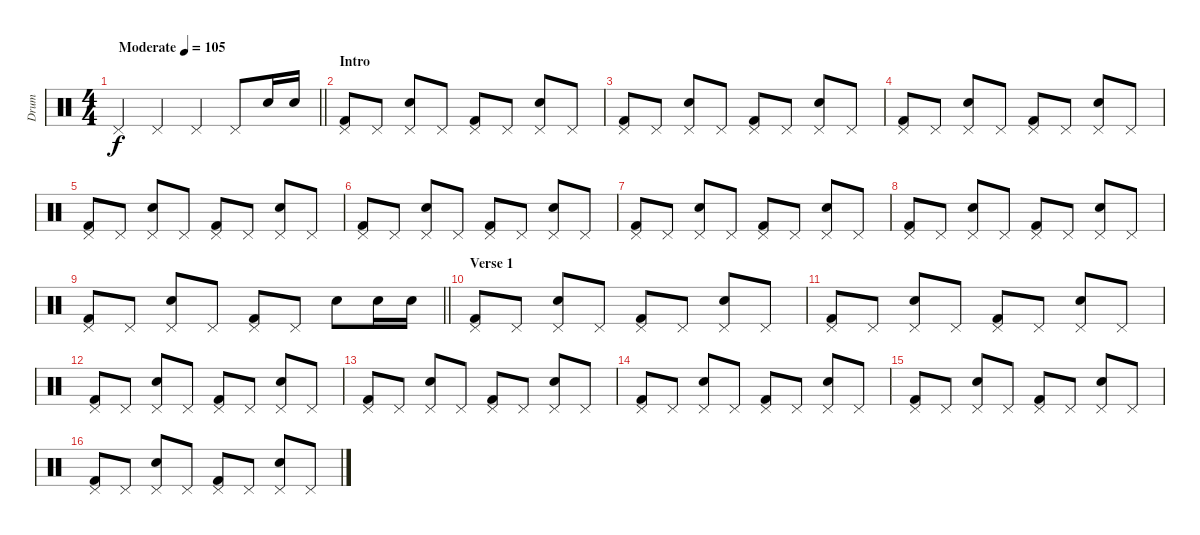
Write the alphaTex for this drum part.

\track ("Drum" "Drum") {instrument percussion}
\staff {score}
\articulation defaults
\ts (4 4)
\tempo (105 "Moderate")
\clef neutral
\barLineRight lightlight
\ks c "Pedal Hi-Hat (hit)".4{dy f} "Pedal Hi-Hat (hit)".4 "Pedal Hi-Hat (hit)".4 "Pedal Hi-Hat (hit)".8 "Electric Snare (hit)".16 "Electric Snare (hit)".16
|
\section ("" "Intro")
("Kick (hit) 2" "Pedal Hi-Hat (hit)").8 "Pedal Hi-Hat (hit)".8 ("Electric Snare (hit)" "Pedal Hi-Hat (hit)").8 "Pedal Hi-Hat (hit)".8 ("Kick (hit) 2" "Pedal Hi-Hat (hit)").8 "Pedal Hi-Hat (hit)".8 ("Electric Snare (hit)" "Pedal Hi-Hat (hit)").8 "Pedal Hi-Hat (hit)".8 |
("Kick (hit) 2" "Pedal Hi-Hat (hit)").8 "Pedal Hi-Hat (hit)".8 ("Electric Snare (hit)" "Pedal Hi-Hat (hit)").8 "Pedal Hi-Hat (hit)".8 ("Kick (hit) 2" "Pedal Hi-Hat (hit)").8 "Pedal Hi-Hat (hit)".8 ("Electric Snare (hit)" "Pedal Hi-Hat (hit)").8 "Pedal Hi-Hat (hit)".8 |
("Kick (hit) 2" "Pedal Hi-Hat (hit)").8 "Pedal Hi-Hat (hit)".8 ("Electric Snare (hit)" "Pedal Hi-Hat (hit)").8 "Pedal Hi-Hat (hit)".8 ("Kick (hit) 2" "Pedal Hi-Hat (hit)").8 "Pedal Hi-Hat (hit)".8 ("Electric Snare (hit)" "Pedal Hi-Hat (hit)").8 "Pedal Hi-Hat (hit)".8 |
("Kick (hit) 2" "Pedal Hi-Hat (hit)").8 "Pedal Hi-Hat (hit)".8 ("Electric Snare (hit)" "Pedal Hi-Hat (hit)").8 "Pedal Hi-Hat (hit)".8 ("Kick (hit) 2" "Pedal Hi-Hat (hit)").8 "Pedal Hi-Hat (hit)".8 ("Electric Snare (hit)" "Pedal Hi-Hat (hit)").8 "Pedal Hi-Hat (hit)".8 |
("Kick (hit) 2" "Pedal Hi-Hat (hit)").8 "Pedal Hi-Hat (hit)".8 ("Electric Snare (hit)" "Pedal Hi-Hat (hit)").8 "Pedal Hi-Hat (hit)".8 ("Kick (hit) 2" "Pedal Hi-Hat (hit)").8 "Pedal Hi-Hat (hit)".8 ("Electric Snare (hit)" "Pedal Hi-Hat (hit)").8 "Pedal Hi-Hat (hit)".8 |
("Kick (hit) 2" "Pedal Hi-Hat (hit)").8 "Pedal Hi-Hat (hit)".8 ("Electric Snare (hit)" "Pedal Hi-Hat (hit)").8 "Pedal Hi-Hat (hit)".8 ("Kick (hit) 2" "Pedal Hi-Hat (hit)").8 "Pedal Hi-Hat (hit)".8 ("Electric Snare (hit)" "Pedal Hi-Hat (hit)").8 "Pedal Hi-Hat (hit)".8 |
("Kick (hit) 2" "Pedal Hi-Hat (hit)").8 "Pedal Hi-Hat (hit)".8 ("Electric Snare (hit)" "Pedal Hi-Hat (hit)").8 "Pedal Hi-Hat (hit)".8 ("Kick (hit) 2" "Pedal Hi-Hat (hit)").8 "Pedal Hi-Hat (hit)".8 ("Electric Snare (hit)" "Pedal Hi-Hat (hit)").8 "Pedal Hi-Hat (hit)".8 |
\barLineRight lightlight
("Kick (hit) 2" "Pedal Hi-Hat (hit)").8 "Pedal Hi-Hat (hit)".8 ("Electric Snare (hit)" "Pedal Hi-Hat (hit)").8 "Pedal Hi-Hat (hit)".8 ("Kick (hit) 2" "Pedal Hi-Hat (hit)").8 "Pedal Hi-Hat (hit)".8 "Electric Snare (hit)".8 "Electric Snare (hit)".16 "Electric Snare (hit)".16 |
\section ("" "Verse 1")
("Kick (hit) 2" "Pedal Hi-Hat (hit)").8 "Pedal Hi-Hat (hit)".8 ("Electric Snare (hit)" "Pedal Hi-Hat (hit)").8 "Pedal Hi-Hat (hit)".8 ("Kick (hit) 2" "Pedal Hi-Hat (hit)").8 "Pedal Hi-Hat (hit)".8 ("Electric Snare (hit)" "Pedal Hi-Hat (hit)").8 "Pedal Hi-Hat (hit)".8 |
("Kick (hit) 2" "Pedal Hi-Hat (hit)").8 "Pedal Hi-Hat (hit)".8 ("Electric Snare (hit)" "Pedal Hi-Hat (hit)").8 "Pedal Hi-Hat (hit)".8 ("Kick (hit) 2" "Pedal Hi-Hat (hit)").8 "Pedal Hi-Hat (hit)".8 ("Electric Snare (hit)" "Pedal Hi-Hat (hit)").8 "Pedal Hi-Hat (hit)".8 |
("Kick (hit) 2" "Pedal Hi-Hat (hit)").8 "Pedal Hi-Hat (hit)".8 ("Electric Snare (hit)" "Pedal Hi-Hat (hit)").8 "Pedal Hi-Hat (hit)".8 ("Kick (hit) 2" "Pedal Hi-Hat (hit)").8 "Pedal Hi-Hat (hit)".8 ("Electric Snare (hit)" "Pedal Hi-Hat (hit)").8 "Pedal Hi-Hat (hit)".8 |
("Kick (hit) 2" "Pedal Hi-Hat (hit)").8 "Pedal Hi-Hat (hit)".8 ("Electric Snare (hit)" "Pedal Hi-Hat (hit)").8 "Pedal Hi-Hat (hit)".8 ("Kick (hit) 2" "Pedal Hi-Hat (hit)").8 "Pedal Hi-Hat (hit)".8 ("Electric Snare (hit)" "Pedal Hi-Hat (hit)").8 "Pedal Hi-Hat (hit)".8 |
("Kick (hit) 2" "Pedal Hi-Hat (hit)").8 "Pedal Hi-Hat (hit)".8 ("Electric Snare (hit)" "Pedal Hi-Hat (hit)").8 "Pedal Hi-Hat (hit)".8 ("Kick (hit) 2" "Pedal Hi-Hat (hit)").8 "Pedal Hi-Hat (hit)".8 ("Electric Snare (hit)" "Pedal Hi-Hat (hit)").8 "Pedal Hi-Hat (hit)".8 |
("Kick (hit) 2" "Pedal Hi-Hat (hit)").8 "Pedal Hi-Hat (hit)".8 ("Electric Snare (hit)" "Pedal Hi-Hat (hit)").8 "Pedal Hi-Hat (hit)".8 ("Kick (hit) 2" "Pedal Hi-Hat (hit)").8 "Pedal Hi-Hat (hit)".8 ("Electric Snare (hit)" "Pedal Hi-Hat (hit)").8 "Pedal Hi-Hat (hit)".8 |
("Kick (hit) 2" "Pedal Hi-Hat (hit)").8 "Pedal Hi-Hat (hit)".8 ("Electric Snare (hit)" "Pedal Hi-Hat (hit)").8 "Pedal Hi-Hat (hit)".8 ("Kick (hit) 2" "Pedal Hi-Hat (hit)").8 "Pedal Hi-Hat (hit)".8 ("Electric Snare (hit)" "Pedal Hi-Hat (hit)").8 "Pedal Hi-Hat (hit)".8
